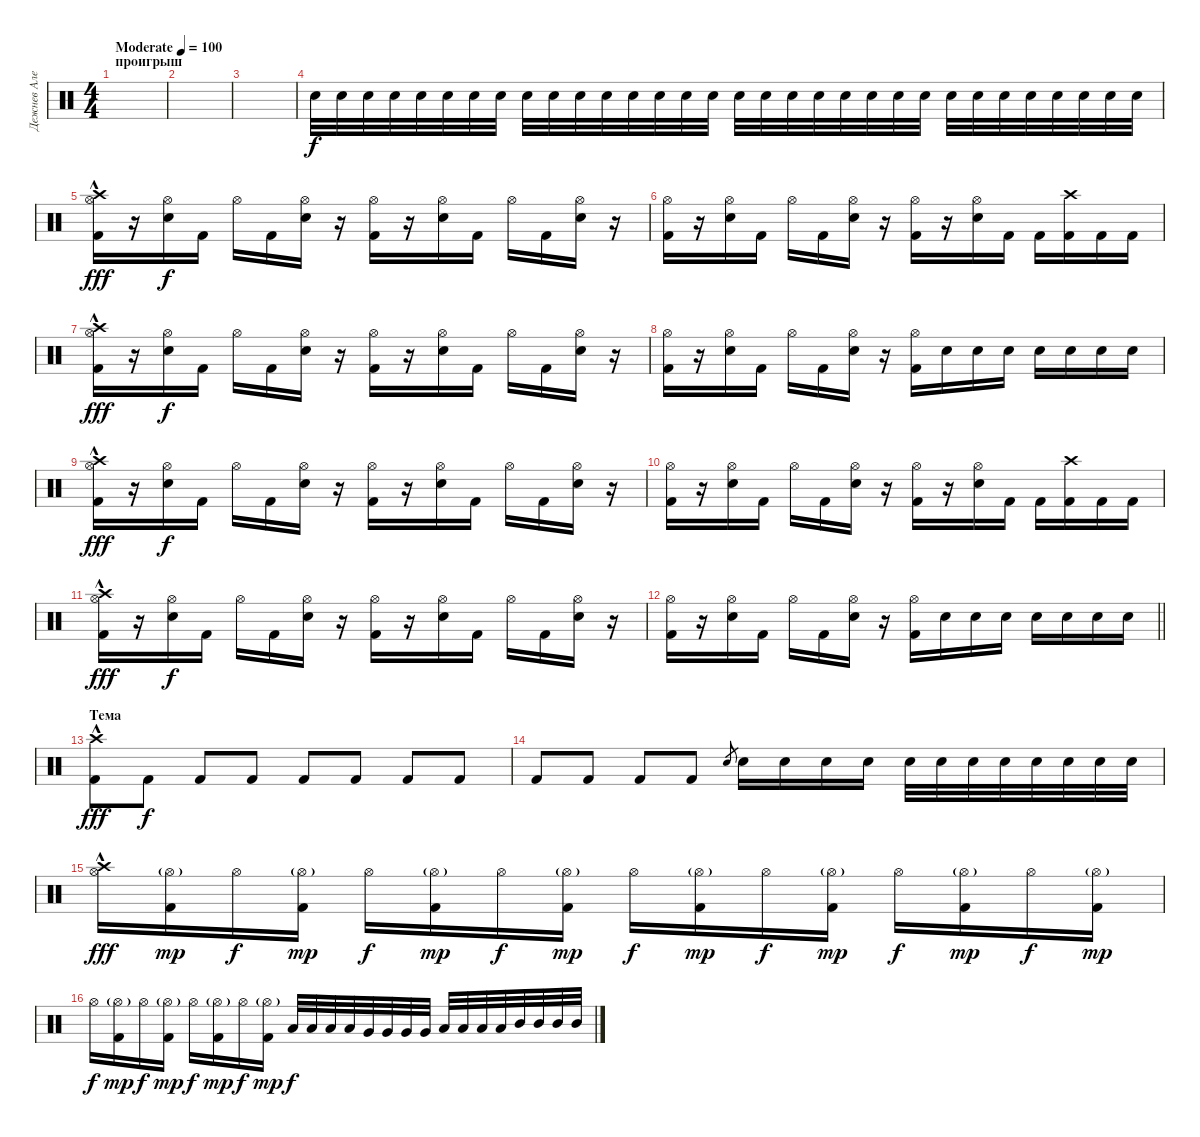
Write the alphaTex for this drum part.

\track ("Дежнев Алексей - аккустические барабаны" "Дежнев Але") {instrument percussion}
\staff {score}
\articulation defaults
\ts (4 4)
\section ("" "проигрыш")
\tempo (100 "Moderate")
\clef neutral
\ks c
|
|
|
"Snare (hit) 2".32{volume 16} "Snare (hit) 2".32 "Snare (hit) 2".32 "Snare (hit) 2".32 "Snare (hit) 2".32 "Snare (hit) 2".32 "Snare (hit) 2".32 "Snare (hit) 2".32 "Snare (hit) 2".32 "Snare (hit) 2".32 "Snare (hit) 2".32 "Snare (hit) 2".32 "Snare (hit) 2".32 "Snare (hit) 2".32 "Snare (hit) 2".32 "Snare (hit) 2".32 "Snare (hit) 2".32 "Snare (hit) 2".32 "Snare (hit) 2".32 "Snare (hit) 2".32 "Snare (hit) 2".32 "Snare (hit) 2".32 "Snare (hit) 2".32 "Snare (hit) 2".32 "Snare (hit) 2".32 "Snare (hit) 2".32 "Snare (hit) 2".32 "Snare (hit) 2".32 "Snare (hit) 2".32 "Snare (hit) 2".32 "Snare (hit) 2".32 "Snare (hit) 2".32 |
("Hi-Hat (open)" "Crash high (hit)"{hac} "Kick (hit) 2").16{dy fff} r.16 ("Hi-Hat (open)" "Snare (hit) 2").16{dy f} "Kick (hit) 2".16 "Hi-Hat (open)".16 "Kick (hit) 2".16 ("Hi-Hat (open)" "Snare (hit) 2").16 r.16 ("Hi-Hat (open)" "Kick (hit) 2").16 r.16 ("Hi-Hat (open)" "Snare (hit) 2").16 "Kick (hit) 2".16 "Hi-Hat (open)".16 "Kick (hit) 2".16 ("Hi-Hat (open)" "Snare (hit) 2").16 r.16 |
("Hi-Hat (open)" "Kick (hit) 2").16 r.16 ("Hi-Hat (open)" "Snare (hit) 2").16 "Kick (hit) 2".16 "Hi-Hat (open)".16 "Kick (hit) 2".16 ("Hi-Hat (open)" "Snare (hit) 2").16 r.16 ("Hi-Hat (open)" "Kick (hit) 2").16 r.16 ("Hi-Hat (open)" "Snare (hit) 2").16 "Kick (hit) 2".16 "Kick (hit) 2".16 ("Crash high (hit)" "Kick (hit) 2").16 "Kick (hit) 2".16 "Kick (hit) 2".16 |
("Hi-Hat (open)" "Crash high (hit)"{hac} "Kick (hit) 2").16{dy fff} r.16 ("Hi-Hat (open)" "Snare (hit) 2").16{dy f} "Kick (hit) 2".16 "Hi-Hat (open)".16 "Kick (hit) 2".16 ("Hi-Hat (open)" "Snare (hit) 2").16 r.16 ("Hi-Hat (open)" "Kick (hit) 2").16 r.16 ("Hi-Hat (open)" "Snare (hit) 2").16 "Kick (hit) 2".16 "Hi-Hat (open)".16 "Kick (hit) 2".16 ("Hi-Hat (open)" "Snare (hit) 2").16 r.16 |
("Hi-Hat (open)" "Kick (hit) 2").16 r.16 ("Hi-Hat (open)" "Snare (hit) 2").16 "Kick (hit) 2".16 "Hi-Hat (open)".16 "Kick (hit) 2".16 ("Hi-Hat (open)" "Snare (hit) 2").16 r.16 ("Hi-Hat (open)" "Kick (hit) 2").16 "Snare (hit) 2".16 "Snare (hit) 2".16 "Snare (hit) 2".16 "Snare (hit) 2".16 "Snare (hit) 2".16 "Snare (hit) 2".16 "Snare (hit) 2".16 |
("Hi-Hat (open)" "Crash high (hit)"{hac} "Kick (hit) 2").16{dy fff} r.16 ("Hi-Hat (open)" "Snare (hit) 2").16{dy f} "Kick (hit) 2".16 "Hi-Hat (open)".16 "Kick (hit) 2".16 ("Hi-Hat (open)" "Snare (hit) 2").16 r.16 ("Hi-Hat (open)" "Kick (hit) 2").16 r.16 ("Hi-Hat (open)" "Snare (hit) 2").16 "Kick (hit) 2".16 "Hi-Hat (open)".16 "Kick (hit) 2".16 ("Hi-Hat (open)" "Snare (hit) 2").16 r.16 |
("Hi-Hat (open)" "Kick (hit) 2").16 r.16 ("Hi-Hat (open)" "Snare (hit) 2").16 "Kick (hit) 2".16 "Hi-Hat (open)".16 "Kick (hit) 2".16 ("Hi-Hat (open)" "Snare (hit) 2").16 r.16 ("Hi-Hat (open)" "Kick (hit) 2").16 r.16 ("Hi-Hat (open)" "Snare (hit) 2").16 "Kick (hit) 2".16 "Kick (hit) 2".16 ("Crash high (hit)" "Kick (hit) 2").16 "Kick (hit) 2".16 "Kick (hit) 2".16 |
("Hi-Hat (open)" "Crash high (hit)"{hac} "Kick (hit) 2").16{dy fff} r.16 ("Hi-Hat (open)" "Snare (hit) 2").16{dy f} "Kick (hit) 2".16 "Hi-Hat (open)".16 "Kick (hit) 2".16 ("Hi-Hat (open)" "Snare (hit) 2").16 r.16 ("Hi-Hat (open)" "Kick (hit) 2").16 r.16 ("Hi-Hat (open)" "Snare (hit) 2").16 "Kick (hit) 2".16 "Hi-Hat (open)".16 "Kick (hit) 2".16 ("Hi-Hat (open)" "Snare (hit) 2").16 r.16 |
\barLineRight lightlight
("Hi-Hat (open)" "Kick (hit) 2").16 r.16 ("Hi-Hat (open)" "Snare (hit) 2").16 "Kick (hit) 2".16 "Hi-Hat (open)".16 "Kick (hit) 2".16 ("Hi-Hat (open)" "Snare (hit) 2").16 r.16 ("Hi-Hat (open)" "Kick (hit) 2").16 "Snare (hit) 2".16 "Snare (hit) 2".16 "Snare (hit) 2".16 "Snare (hit) 2".16 "Snare (hit) 2".16 "Snare (hit) 2".16 "Snare (hit) 2".16 |
\section ("" "Тема")
("Crash high (hit)"{hac} "Kick (hit) 2").8{dy fff} "Kick (hit) 2".8{dy f} "Kick (hit) 2".8 "Kick (hit) 2".8 "Kick (hit) 2".8 "Kick (hit) 2".8 "Kick (hit) 2".8 "Kick (hit) 2".8 |
"Kick (hit) 2".8 "Kick (hit) 2".8 "Kick (hit) 2".8 "Kick (hit) 2".8 "Snare (hit) 2".8{gr} "Snare (hit) 2".16 "Snare (hit) 2".16 "Snare (hit) 2".16 "Snare (hit) 2".16 "Snare (hit) 2".32 "Snare (hit) 2".32 "Snare (hit) 2".32 "Snare (hit) 2".32 "Snare (hit) 2".32 "Snare (hit) 2".32 "Snare (hit) 2".32 "Snare (hit) 2".32 |
("Hi-Hat (open)" "Crash high (hit)"{hac}).16{dy fff} ("Hi-Hat (open)"{g} "Kick (hit) 2").16{dy mp} "Hi-Hat (open)".16{dy f} ("Hi-Hat (open)"{g} "Kick (hit) 2").16{dy mp} "Hi-Hat (open)".16{dy f} ("Hi-Hat (open)"{g} "Kick (hit) 2").16{dy mp} "Hi-Hat (open)".16{dy f} ("Hi-Hat (open)"{g} "Kick (hit) 2").16{dy mp} "Hi-Hat (open)".16{dy f} ("Hi-Hat (open)"{g} "Kick (hit) 2").16{dy mp} "Hi-Hat (open)".16{dy f} ("Hi-Hat (open)"{g} "Kick (hit) 2").16{dy mp} "Hi-Hat (open)".16{dy f} ("Hi-Hat (open)"{g} "Kick (hit) 2").16{dy mp} "Hi-Hat (open)".16{dy f} ("Hi-Hat (open)"{g} "Kick (hit) 2").16{dy mp} |
"Hi-Hat (open)".16{dy f} ("Hi-Hat (open)"{g} "Kick (hit) 2").16{dy mp} "Hi-Hat (open)".16{dy f} ("Hi-Hat (open)"{g} "Kick (hit) 2").16{dy mp} "Hi-Hat (open)".16{dy f} ("Hi-Hat (open)"{g} "Kick (hit) 2").16{dy mp} "Hi-Hat (open)".16{dy f} ("Hi-Hat (open)"{g} "Kick (hit) 2").16{dy mp} "Low Floor Tom (hit)".32{dy f} "Low Floor Tom (hit)".32 "Low Floor Tom (hit)".32 "Low Floor Tom (hit)".32 "Very Low Tom (hit)".32 "Very Low Tom (hit)".32 "Very Low Tom (hit)".32 "Very Low Tom (hit)".32 "Low Tom (hit)".32 "Low Tom (hit)".32 "Low Tom (hit)".32 "Low Tom (hit)".32 "Mid Tom (hit)".32 "Mid Tom (hit)".32 "Mid Tom (hit)".32 "Mid Tom (hit)".32
